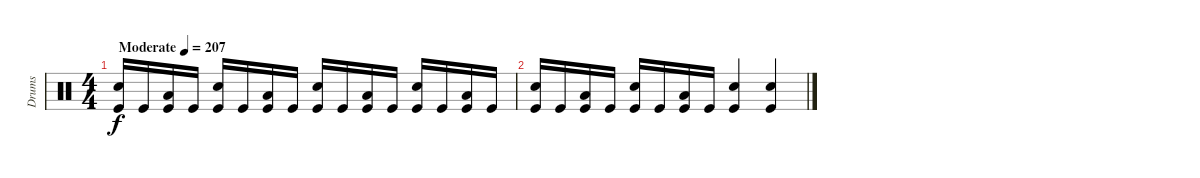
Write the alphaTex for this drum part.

\track ("Drums" "Drums") {instrument percussion}
\staff {score}
\articulation defaults
\ts (4 4)
\tempo (207 "Moderate")
\clef neutral
\ks c
("Snare (hit) 2" "Kick (hit)").16{dy f} "Kick (hit)".16 ("Low Tom (hit)" "Kick (hit)").16 "Kick (hit)".16 ("Snare (hit) 2" "Kick (hit)").16 "Kick (hit)".16 ("Low Tom (hit)" "Kick (hit)").16 "Kick (hit)".16 ("Snare (hit) 2" "Kick (hit)").16 "Kick (hit)".16 ("Low Tom (hit)" "Kick (hit)").16 "Kick (hit)".16 ("Snare (hit) 2" "Kick (hit)").16 "Kick (hit)".16 ("Low Tom (hit)" "Kick (hit)").16 "Kick (hit)".16 |
("Snare (hit) 2" "Kick (hit)").16 "Kick (hit)".16 ("Low Tom (hit)" "Kick (hit)").16 "Kick (hit)".16 ("Snare (hit) 2" "Kick (hit)").16 "Kick (hit)".16 ("Low Tom (hit)" "Kick (hit)").16 "Kick (hit)".16 ("Snare (hit) 2" "Kick (hit)").4 ("Snare (hit) 2" "Kick (hit)").4
